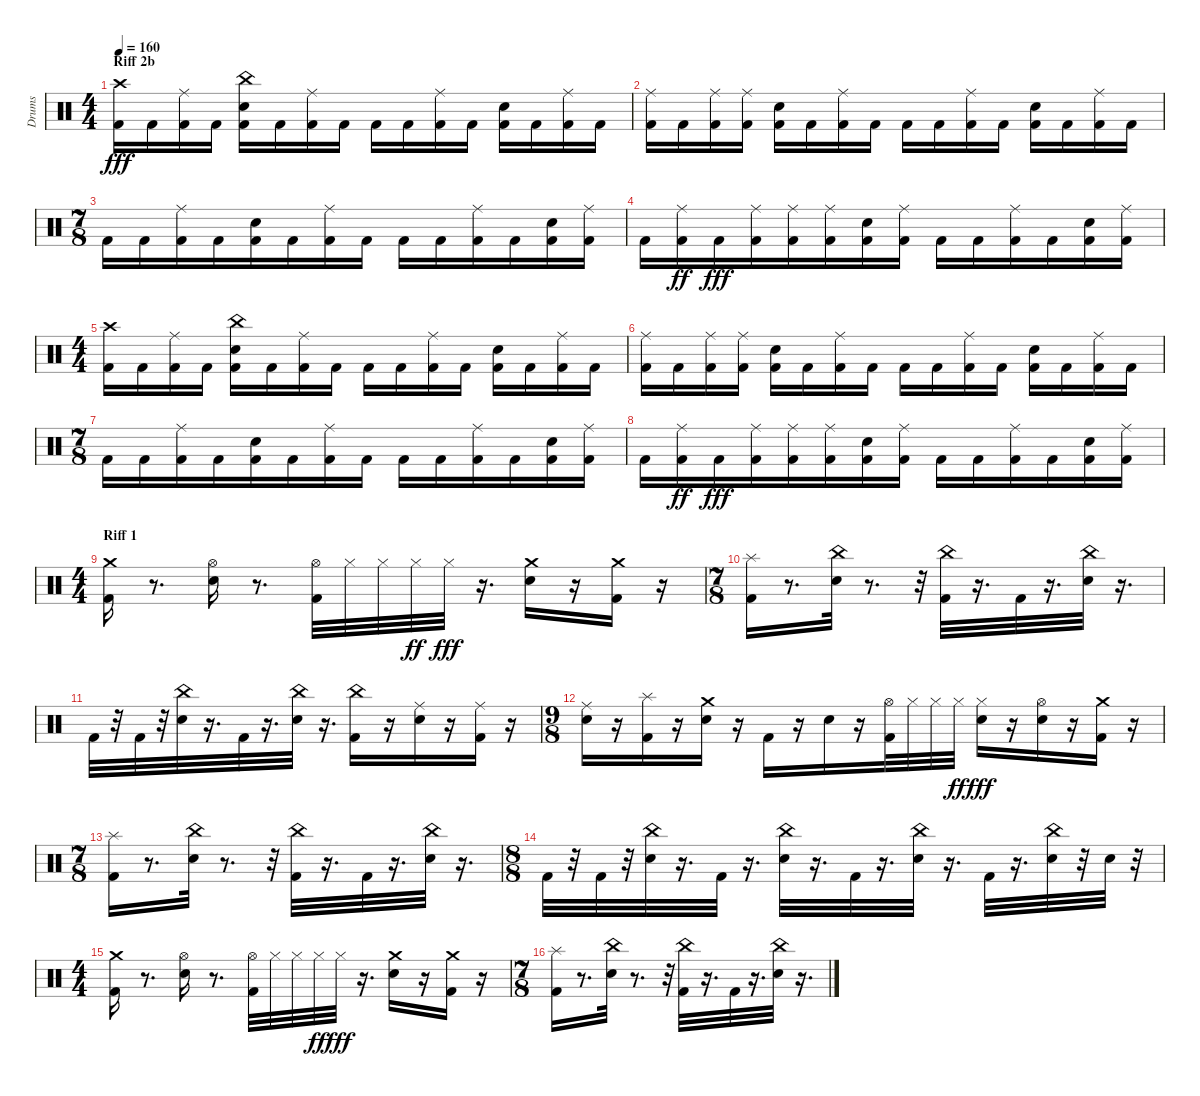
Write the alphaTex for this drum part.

\track ("Drums" "Drums") {instrument percussion}
\staff {score}
\articulation defaults
\ts (4 4)
\section ("" "Riff 2b")
\tempo 160
\clef neutral
\ks c
("Kick (hit) 2" "Crash high (hit)").16{dy fff} "Kick (hit) 2".16 ("Kick (hit) 2" "Ride (middle)").16 "Kick (hit) 2".16 ("Kick (hit) 2" "Snare (hit) 2" "China (hit)").16 "Kick (hit) 2".16 ("Kick (hit) 2" "Ride (middle)").16 "Kick (hit) 2".16 "Kick (hit) 2".16 "Kick (hit) 2".16 ("Kick (hit) 2" "Ride (middle)").16 "Kick (hit) 2".16 ("Kick (hit) 2" "Snare (hit) 2").16 "Kick (hit) 2".16 ("Kick (hit) 2" "Ride (middle)").16 "Kick (hit) 2".16 |
("Kick (hit) 2" "Ride (middle)").16 "Kick (hit) 2".16 ("Kick (hit) 2" "Ride (middle)").16 ("Kick (hit) 2" "Ride (middle)").16 ("Kick (hit) 2" "Snare (hit) 2").16 "Kick (hit) 2".16 ("Kick (hit) 2" "Ride (middle)").16 "Kick (hit) 2".16 "Kick (hit) 2".16 "Kick (hit) 2".16 ("Kick (hit) 2" "Ride (middle)").16 "Kick (hit) 2".16 ("Kick (hit) 2" "Snare (hit) 2").16 "Kick (hit) 2".16 ("Kick (hit) 2" "Ride (middle)").16 "Kick (hit) 2".16 |
\ts (7 8)
"Kick (hit) 2".16 "Kick (hit) 2".16 ("Kick (hit) 2" "Ride (middle)").16 "Kick (hit) 2".16 ("Kick (hit) 2" "Snare (hit) 2").16 "Kick (hit) 2".16 ("Kick (hit) 2" "Ride (middle)").16 "Kick (hit) 2".16 "Kick (hit) 2".16 "Kick (hit) 2".16 ("Kick (hit) 2" "Ride (middle)").16 "Kick (hit) 2".16 ("Kick (hit) 2" "Snare (hit) 2").16 ("Kick (hit) 2" "Ride (middle)").16 |
"Kick (hit) 2".16 ("Kick (hit) 2" "Ride (middle)").16{dy ff} "Kick (hit) 2".16{dy fff} ("Kick (hit) 2" "Ride (middle)").16 ("Kick (hit) 2" "Ride (middle)").16 ("Kick (hit) 2" "Ride (middle)").16 ("Kick (hit) 2" "Snare (hit) 2").16 ("Kick (hit) 2" "Ride (middle)").16 "Kick (hit) 2".16 "Kick (hit) 2".16 ("Kick (hit) 2" "Ride (middle)").16 "Kick (hit) 2".16 ("Kick (hit) 2" "Snare (hit) 2").16 ("Kick (hit) 2" "Ride (middle)").16 |
\ts (4 4)
("Kick (hit) 2" "Crash high (hit)").16 "Kick (hit) 2".16 ("Kick (hit) 2" "Ride (middle)").16 "Kick (hit) 2".16 ("Kick (hit) 2" "Snare (hit) 2" "China (hit)").16 "Kick (hit) 2".16 ("Kick (hit) 2" "Ride (middle)").16 "Kick (hit) 2".16 "Kick (hit) 2".16 "Kick (hit) 2".16 ("Kick (hit) 2" "Ride (middle)").16 "Kick (hit) 2".16 ("Kick (hit) 2" "Snare (hit) 2").16 "Kick (hit) 2".16 ("Kick (hit) 2" "Ride (middle)").16 "Kick (hit) 2".16 |
("Kick (hit) 2" "Ride (middle)").16 "Kick (hit) 2".16 ("Kick (hit) 2" "Ride (middle)").16 ("Kick (hit) 2" "Ride (middle)").16 ("Kick (hit) 2" "Snare (hit) 2").16 "Kick (hit) 2".16 ("Kick (hit) 2" "Ride (middle)").16 "Kick (hit) 2".16 "Kick (hit) 2".16 "Kick (hit) 2".16 ("Kick (hit) 2" "Ride (middle)").16 "Kick (hit) 2".16 ("Kick (hit) 2" "Snare (hit) 2").16 "Kick (hit) 2".16 ("Kick (hit) 2" "Ride (middle)").16 "Kick (hit) 2".16 |
\ts (7 8)
"Kick (hit) 2".16 "Kick (hit) 2".16 ("Kick (hit) 2" "Ride (middle)").16 "Kick (hit) 2".16 ("Kick (hit) 2" "Snare (hit) 2").16 "Kick (hit) 2".16 ("Kick (hit) 2" "Ride (middle)").16 "Kick (hit) 2".16 "Kick (hit) 2".16 "Kick (hit) 2".16 ("Kick (hit) 2" "Ride (middle)").16 "Kick (hit) 2".16 ("Kick (hit) 2" "Snare (hit) 2").16 ("Kick (hit) 2" "Ride (middle)").16 |
"Kick (hit) 2".16 ("Kick (hit) 2" "Ride (middle)").16{dy ff} "Kick (hit) 2".16{dy fff} ("Kick (hit) 2" "Ride (middle)").16 ("Kick (hit) 2" "Ride (middle)").16 ("Kick (hit) 2" "Ride (middle)").16 ("Kick (hit) 2" "Snare (hit) 2").16 ("Kick (hit) 2" "Ride (middle)").16 "Kick (hit) 2".16 "Kick (hit) 2".16 ("Kick (hit) 2" "Ride (middle)").16 "Kick (hit) 2".16 ("Kick (hit) 2" "Snare (hit) 2").16 ("Kick (hit) 2" "Ride (middle)").16 |
\ts (4 4)
\section ("" "Riff 1")
("Kick (hit) 2" "Crash medium (hit)").16 r.8{d} ("Snare (hit) 2" "Hi-Hat (open)").16 r.8{d} ("Kick (hit) 2" "Hi-Hat (open)").32 "Hi-Hat (closed)".32 "Hi-Hat (closed)".32 "Hi-Hat (closed)".32{dy ff} "Hi-Hat (closed)".32{dy fff} r.16{d} ("Snare (hit) 2" "Crash medium (hit)").16 r.16 ("Kick (hit) 2" "Crash medium (hit)").16 r.16 |
\ts (7 8)
("Kick (hit) 2" "Splash (hit)").16 r.8{d} ("Snare (hit) 2" "China (hit)").32 r.8{d} r.32 ("Kick (hit) 2" "China (hit)").32 r.16{d} "Kick (hit) 2".32 r.16{d} ("Snare (hit) 2" "China (hit)").32 r.16{d} |
"Kick (hit) 2".32 r.32 "Kick (hit) 2".32 r.32 ("Snare (hit) 2" "China (hit)").32 r.16{d} "Kick (hit) 2".32 r.16{d} ("Snare (hit) 2" "China (hit)").32 r.16{d} ("Kick (hit) 2" "China (hit)").16 r.16 ("Snare (hit) 2" "Ride (middle)").16 r.16 ("Kick (hit) 2" "Ride (middle)").16 r.16 |
\ts (9 8)
("Snare (hit) 2" "Ride (middle)").16 r.16 ("Kick (hit) 2" "Splash (hit)").16 r.16 ("Snare (hit) 2" "Crash medium (hit)").16 r.16 "Kick (hit) 2".16 r.16 "Snare (hit) 2".16 r.16 ("Kick (hit) 2" "Hi-Hat (open)").32 "Hi-Hat (closed)".32 "Hi-Hat (closed)".32 "Hi-Hat (closed)".32{dy ff} ("Snare (hit) 2" "Hi-Hat (closed)").16{dy fff} r.16 ("Snare (hit) 2" "Hi-Hat (open)").16 r.16 ("Kick (hit) 2" "Crash medium (hit)").16 r.16 |
\ts (7 8)
("Kick (hit) 2" "Splash (hit)").16 r.8{d} ("Snare (hit) 2" "China (hit)").32 r.8{d} r.32 ("Kick (hit) 2" "China (hit)").32 r.16{d} "Kick (hit) 2".32 r.16{d} ("Snare (hit) 2" "China (hit)").32 r.16{d} |
\ts (8 8)
"Kick (hit) 2".32 r.32 "Kick (hit) 2".32 r.32 ("Snare (hit) 2" "China (hit)").32 r.16{d} "Kick (hit) 2".32 r.16{d} ("Snare (hit) 2" "China (hit)").32 r.16{d} "Kick (hit) 2".32 r.16{d} ("Snare (hit) 2" "China (hit)").32 r.16{d} "Kick (hit) 2".32 r.16{d} ("Snare (hit) 2" "China (hit)").32 r.32 "Snare (hit) 2".32 r.32 |
\ts (4 4)
("Kick (hit) 2" "Crash medium (hit)").16 r.8{d} ("Snare (hit) 2" "Hi-Hat (open)").16 r.8{d} ("Kick (hit) 2" "Hi-Hat (open)").32 "Hi-Hat (closed)".32 "Hi-Hat (closed)".32 "Hi-Hat (closed)".32{dy ff} "Hi-Hat (closed)".32{dy fff} r.16{d} ("Snare (hit) 2" "Crash medium (hit)").16 r.16 ("Kick (hit) 2" "Crash medium (hit)").16 r.16 |
\ts (7 8)
("Kick (hit) 2" "Splash (hit)").16 r.8{d} ("Snare (hit) 2" "China (hit)").32 r.8{d} r.32 ("Kick (hit) 2" "China (hit)").32 r.16{d} "Kick (hit) 2".32 r.16{d} ("Snare (hit) 2" "China (hit)").32 r.16{d}
